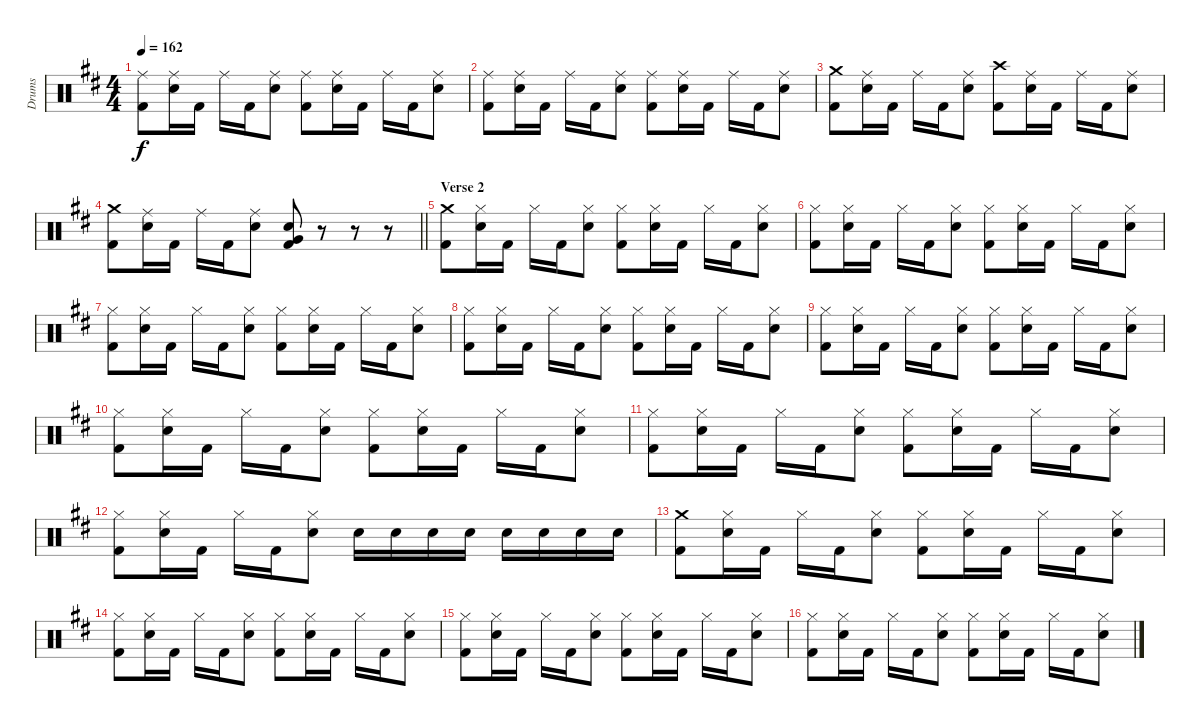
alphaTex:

\track ("Drums" "Drums") {instrument percussion}
\staff {score}
\articulation defaults
\ts (4 4)
\tempo 162
\clef neutral
\ks d
("Ride (middle)" "Kick (hit) 2").8{dy f} ("Ride (middle)" "Snare (hit) 2").16 "Kick (hit) 2".16 "Ride (middle)".16 "Kick (hit) 2".16 ("Ride (middle)" "Snare (hit) 2").8 ("Ride (middle)" "Kick (hit) 2").8 ("Ride (middle)" "Snare (hit) 2").16 "Kick (hit) 2".16 "Ride (middle)".16 "Kick (hit) 2".16 ("Ride (middle)" "Snare (hit) 2").8 |
("Ride (middle)" "Kick (hit) 2").8 ("Ride (middle)" "Snare (hit) 2").16 "Kick (hit) 2".16 "Ride (middle)".16 "Kick (hit) 2".16 ("Ride (middle)" "Snare (hit) 2").8 ("Ride (middle)" "Kick (hit) 2").8 ("Ride (middle)" "Snare (hit) 2").16 "Kick (hit) 2".16 "Ride (middle)".16 "Kick (hit) 2".16 ("Ride (middle)" "Snare (hit) 2").8 |
("Crash medium (hit)" "Kick (hit) 2").8 ("Ride (middle)" "Snare (hit) 2").16 "Kick (hit) 2".16 "Ride (middle)".16 "Kick (hit) 2".16 ("Ride (middle)" "Snare (hit) 2").8 ("Crash high (hit)" "Kick (hit) 2").8 ("Ride (middle)" "Snare (hit) 2").16 "Kick (hit) 2".16 "Ride (middle)".16 "Kick (hit) 2".16 ("Ride (middle)" "Snare (hit) 2").8 |
\barLineRight lightlight
("Crash medium (hit)" "Kick (hit) 2").8 ("Ride (middle)" "Snare (hit) 2").16 "Kick (hit) 2".16 "Ride (middle)".16 "Kick (hit) 2".16 ("Ride (middle)" "Snare (hit) 2").8 ("Snare (hit) 2" "Very Low Tom (hit)" "Kick (hit) 2").8 r.8 r.8 r.8 |
\section ("" "Verse 2")
("Crash medium (hit)" "Kick (hit) 2").8 ("Hi-Hat (closed)" "Snare (hit) 2").16 "Kick (hit) 2".16 "Hi-Hat (closed)".16 "Kick (hit) 2".16 ("Hi-Hat (closed)" "Snare (hit) 2").8 ("Hi-Hat (closed)" "Kick (hit) 2").8 ("Hi-Hat (closed)" "Snare (hit) 2").16 "Kick (hit) 2".16 "Hi-Hat (closed)".16 "Kick (hit) 2".16 ("Hi-Hat (closed)" "Snare (hit) 2").8 |
("Hi-Hat (closed)" "Kick (hit) 2").8 ("Hi-Hat (closed)" "Snare (hit) 2").16 "Kick (hit) 2".16 "Hi-Hat (closed)".16 "Kick (hit) 2".16 ("Hi-Hat (closed)" "Snare (hit) 2").8 ("Hi-Hat (closed)" "Kick (hit) 2").8 ("Hi-Hat (closed)" "Snare (hit) 2").16 "Kick (hit) 2".16 "Hi-Hat (closed)".16 "Kick (hit) 2".16 ("Hi-Hat (closed)" "Snare (hit) 2").8 |
("Hi-Hat (closed)" "Kick (hit) 2").8 ("Hi-Hat (closed)" "Snare (hit) 2").16 "Kick (hit) 2".16 "Hi-Hat (closed)".16 "Kick (hit) 2".16 ("Hi-Hat (closed)" "Snare (hit) 2").8 ("Hi-Hat (closed)" "Kick (hit) 2").8 ("Hi-Hat (closed)" "Snare (hit) 2").16 "Kick (hit) 2".16 "Hi-Hat (closed)".16 "Kick (hit) 2".16 ("Hi-Hat (closed)" "Snare (hit) 2").8 |
("Hi-Hat (closed)" "Kick (hit) 2").8 ("Hi-Hat (closed)" "Snare (hit) 2").16 "Kick (hit) 2".16 "Hi-Hat (closed)".16 "Kick (hit) 2".16 ("Hi-Hat (closed)" "Snare (hit) 2").8 ("Hi-Hat (closed)" "Kick (hit) 2").8 ("Hi-Hat (closed)" "Snare (hit) 2").16 "Kick (hit) 2".16 "Hi-Hat (closed)".16 "Kick (hit) 2".16 ("Hi-Hat (closed)" "Snare (hit) 2").8 |
("Hi-Hat (closed)" "Kick (hit) 2").8 ("Hi-Hat (closed)" "Snare (hit) 2").16 "Kick (hit) 2".16 "Hi-Hat (closed)".16 "Kick (hit) 2".16 ("Hi-Hat (closed)" "Snare (hit) 2").8 ("Hi-Hat (closed)" "Kick (hit) 2").8 ("Hi-Hat (closed)" "Snare (hit) 2").16 "Kick (hit) 2".16 "Hi-Hat (closed)".16 "Kick (hit) 2".16 ("Hi-Hat (closed)" "Snare (hit) 2").8 |
("Hi-Hat (closed)" "Kick (hit) 2").8 ("Hi-Hat (closed)" "Snare (hit) 2").16 "Kick (hit) 2".16 "Hi-Hat (closed)".16 "Kick (hit) 2".16 ("Hi-Hat (closed)" "Snare (hit) 2").8 ("Hi-Hat (closed)" "Kick (hit) 2").8 ("Hi-Hat (closed)" "Snare (hit) 2").16 "Kick (hit) 2".16 "Hi-Hat (closed)".16 "Kick (hit) 2".16 ("Hi-Hat (closed)" "Snare (hit) 2").8 |
("Hi-Hat (closed)" "Kick (hit) 2").8 ("Hi-Hat (closed)" "Snare (hit) 2").16 "Kick (hit) 2".16 "Hi-Hat (closed)".16 "Kick (hit) 2".16 ("Hi-Hat (closed)" "Snare (hit) 2").8 ("Hi-Hat (closed)" "Kick (hit) 2").8 ("Hi-Hat (closed)" "Snare (hit) 2").16 "Kick (hit) 2".16 "Hi-Hat (closed)".16 "Kick (hit) 2".16 ("Hi-Hat (closed)" "Snare (hit) 2").8 |
("Hi-Hat (closed)" "Kick (hit) 2").8 ("Hi-Hat (closed)" "Snare (hit) 2").16 "Kick (hit) 2".16 "Hi-Hat (closed)".16 "Kick (hit) 2".16 ("Hi-Hat (closed)" "Snare (hit) 2").8 "Snare (hit) 2".16 "Snare (hit) 2".16 "Snare (hit) 2".16 "Snare (hit) 2".16 "Snare (hit) 2".16 "Snare (hit) 2".16 "Snare (hit) 2".16 "Snare (hit) 2".16 |
("Crash medium (hit)" "Kick (hit) 2").8 ("Hi-Hat (closed)" "Snare (hit) 2").16 "Kick (hit) 2".16 "Hi-Hat (closed)".16 "Kick (hit) 2".16 ("Hi-Hat (closed)" "Snare (hit) 2").8 ("Hi-Hat (closed)" "Kick (hit) 2").8 ("Hi-Hat (closed)" "Snare (hit) 2").16 "Kick (hit) 2".16 "Hi-Hat (closed)".16 "Kick (hit) 2".16 ("Hi-Hat (closed)" "Snare (hit) 2").8 |
("Hi-Hat (closed)" "Kick (hit) 2").8 ("Hi-Hat (closed)" "Snare (hit) 2").16 "Kick (hit) 2".16 "Hi-Hat (closed)".16 "Kick (hit) 2".16 ("Hi-Hat (closed)" "Snare (hit) 2").8 ("Hi-Hat (closed)" "Kick (hit) 2").8 ("Hi-Hat (closed)" "Snare (hit) 2").16 "Kick (hit) 2".16 "Hi-Hat (closed)".16 "Kick (hit) 2".16 ("Hi-Hat (closed)" "Snare (hit) 2").8 |
("Hi-Hat (closed)" "Kick (hit) 2").8 ("Hi-Hat (closed)" "Snare (hit) 2").16 "Kick (hit) 2".16 "Hi-Hat (closed)".16 "Kick (hit) 2".16 ("Hi-Hat (closed)" "Snare (hit) 2").8 ("Hi-Hat (closed)" "Kick (hit) 2").8 ("Hi-Hat (closed)" "Snare (hit) 2").16 "Kick (hit) 2".16 "Hi-Hat (closed)".16 "Kick (hit) 2".16 ("Hi-Hat (closed)" "Snare (hit) 2").8 |
("Hi-Hat (closed)" "Kick (hit) 2").8 ("Hi-Hat (closed)" "Snare (hit) 2").16 "Kick (hit) 2".16 "Hi-Hat (closed)".16 "Kick (hit) 2".16 ("Hi-Hat (closed)" "Snare (hit) 2").8 ("Hi-Hat (closed)" "Kick (hit) 2").8 ("Hi-Hat (closed)" "Snare (hit) 2").16 "Kick (hit) 2".16 "Hi-Hat (closed)".16 "Kick (hit) 2".16 ("Hi-Hat (closed)" "Snare (hit) 2").8
